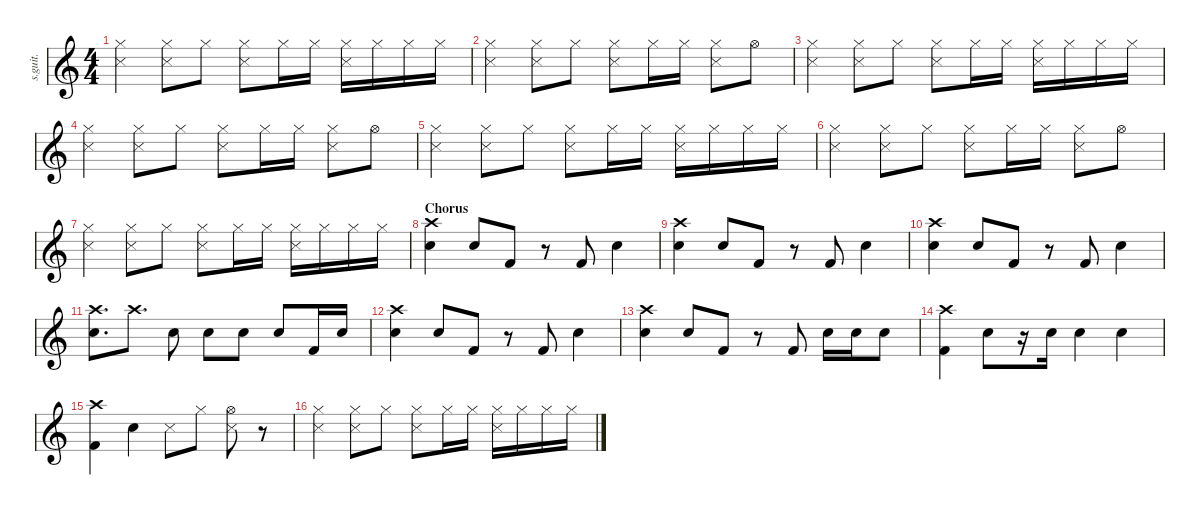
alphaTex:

\defaultSystemsLayout 4
\hideDynamics
\bracketExtendMode nobrackets
\track ("Percussion" "s.guit.") {instrument percussion}
\staff {score}
\articulation defaults
\ts (4 4)
\tempo (102 hide)
\clef g2
\ks c
("Snare (side stick) 3" "Hi-Hat (closed)").4{dy f} ("Snare (side stick) 3" "Hi-Hat (closed)").8 "Hi-Hat (closed)".8 ("Snare (side stick) 3" "Hi-Hat (closed)").8 "Hi-Hat (closed)".16 "Hi-Hat (closed)".16 ("Snare (side stick) 3" "Hi-Hat (closed)").16 "Hi-Hat (closed)".16 "Hi-Hat (closed)".16 "Hi-Hat (closed)".16 |
("Snare (side stick) 3" "Hi-Hat (closed)").4 ("Snare (side stick) 3" "Hi-Hat (closed)").8 "Hi-Hat (closed)".8 ("Snare (side stick) 3" "Hi-Hat (closed)").8 "Hi-Hat (closed)".16 "Hi-Hat (closed)".16 ("Snare (side stick) 3" "Hi-Hat (closed)").8 "Hi-Hat (open)".8 |
("Snare (side stick) 3" "Hi-Hat (closed)").4 ("Snare (side stick) 3" "Hi-Hat (closed)").8 "Hi-Hat (closed)".8 ("Snare (side stick) 3" "Hi-Hat (closed)").8 "Hi-Hat (closed)".16 "Hi-Hat (closed)".16 ("Snare (side stick) 3" "Hi-Hat (closed)").16 "Hi-Hat (closed)".16 "Hi-Hat (closed)".16 "Hi-Hat (closed)".16 |
("Snare (side stick) 3" "Hi-Hat (closed)").4 ("Snare (side stick) 3" "Hi-Hat (closed)").8 "Hi-Hat (closed)".8 ("Snare (side stick) 3" "Hi-Hat (closed)").8 "Hi-Hat (closed)".16 "Hi-Hat (closed)".16 ("Snare (side stick) 3" "Hi-Hat (closed)").8 "Hi-Hat (open)".8 |
("Snare (side stick) 3" "Hi-Hat (closed)").4 ("Snare (side stick) 3" "Hi-Hat (closed)").8 "Hi-Hat (closed)".8 ("Snare (side stick) 3" "Hi-Hat (closed)").8 "Hi-Hat (closed)".16 "Hi-Hat (closed)".16 ("Snare (side stick) 3" "Hi-Hat (closed)").16 "Hi-Hat (closed)".16 "Hi-Hat (closed)".16 "Hi-Hat (closed)".16 |
("Snare (side stick) 3" "Hi-Hat (closed)").4 ("Snare (side stick) 3" "Hi-Hat (closed)").8 "Hi-Hat (closed)".8 ("Snare (side stick) 3" "Hi-Hat (closed)").8 "Hi-Hat (closed)".16 "Hi-Hat (closed)".16 ("Snare (side stick) 3" "Hi-Hat (closed)").8 "Hi-Hat (open)".8 |
("Snare (side stick) 3" "Hi-Hat (closed)").4 ("Snare (side stick) 3" "Hi-Hat (closed)").8 "Hi-Hat (closed)".8 ("Snare (side stick) 3" "Hi-Hat (closed)").8 "Hi-Hat (closed)".16 "Hi-Hat (closed)".16 ("Snare (side stick) 3" "Hi-Hat (closed)").16 "Hi-Hat (closed)".16 "Hi-Hat (closed)".16 "Hi-Hat (closed)".16 |
\section ("" "Chorus")
("Crash high (hit)" "Snare (hit) 2").4 "Snare (hit) 2".8 "Kick (hit) 2".8 r.8 "Kick (hit) 2".8 "Snare (hit) 2".4 |
("Crash high (hit)" "Snare (hit) 2").4 "Snare (hit) 2".8 "Kick (hit) 2".8 r.8 "Kick (hit) 2".8 "Snare (hit) 2".4 |
("Crash high (hit)" "Snare (hit) 2").4 "Snare (hit) 2".8 "Kick (hit) 2".8 r.8 "Kick (hit) 2".8 "Snare (hit) 2".4 |
("Crash high (hit)" "Snare (hit) 2").8{d} "Crash high (hit)".8{d} "Snare (hit) 2".8{dy ff} "Snare (hit) 2".8 "Snare (hit) 2".8{dy fff} "Snare (hit) 2".8 "Kick (hit) 2".16 "Snare (hit) 2".16 |
("Crash high (hit)" "Snare (hit) 2").4 "Snare (hit) 2".8 "Kick (hit) 2".8 r.8 "Kick (hit) 2".8 "Snare (hit) 2".4 |
("Crash high (hit)" "Snare (hit) 2").4 "Snare (hit) 2".8 "Kick (hit) 2".8 r.8 "Kick (hit) 2".8 "Snare (hit) 2".16 "Snare (hit) 2".16 "Snare (hit) 2".8 |
("Crash high (hit)" "Kick (hit) 2").4 "Snare (hit) 2".8{dy ff} r.16 "Snare (hit) 2".16 "Snare (hit) 2".4{dy fff} "Snare (hit) 2".4 |
("Crash high (hit)" "Kick (hit) 2").4 "Snare (hit) 2".4{dy ff} "Snare (side stick) 3".8{dy f} "Hi-Hat (closed)".8 ("Snare (side stick) 3" "Hi-Hat (open)").8 r.8 |
("Snare (side stick) 3" "Hi-Hat (closed)").4 ("Snare (side stick) 3" "Hi-Hat (closed)").8 "Hi-Hat (closed)".8 ("Snare (side stick) 3" "Hi-Hat (closed)").8 "Hi-Hat (closed)".16 "Hi-Hat (closed)".16 ("Snare (side stick) 3" "Hi-Hat (closed)").16 "Hi-Hat (closed)".16 "Hi-Hat (closed)".16 "Hi-Hat (closed)".16
